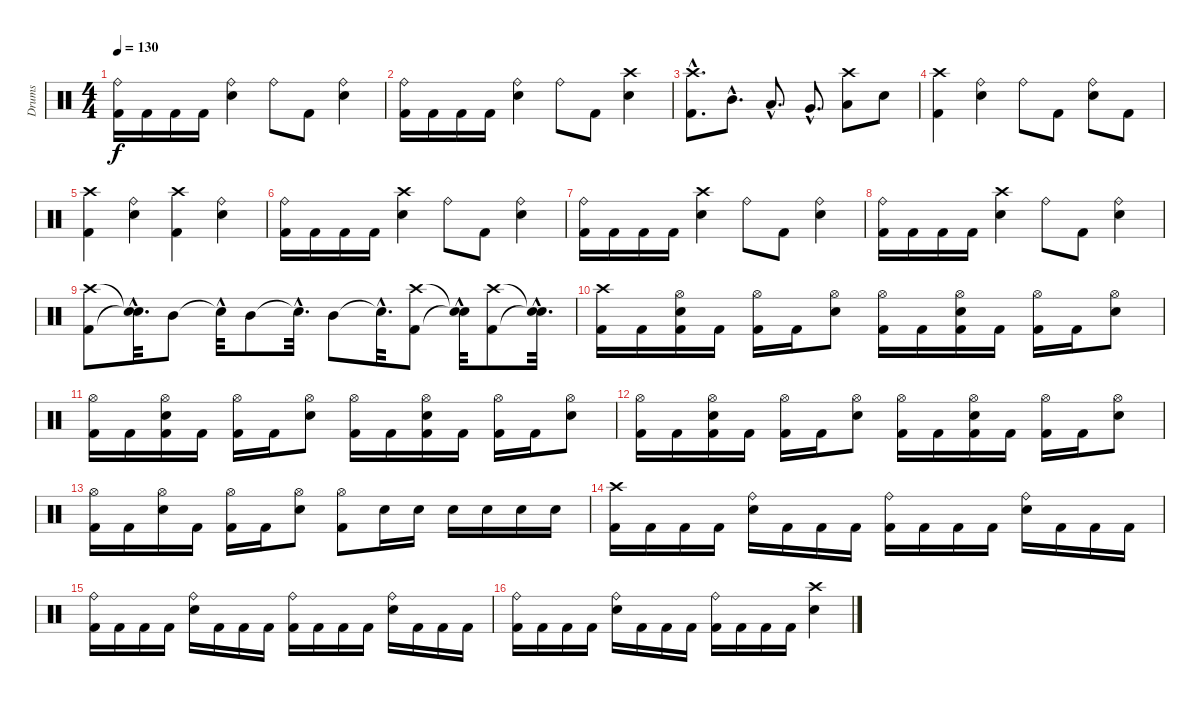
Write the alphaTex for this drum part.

\track ("Drums" "Drums") {instrument percussion}
\staff {score}
\articulation defaults
\ts (4 4)
\tempo 130
\clef neutral
\ks c
("Kick (hit) 2" "Ride (bell)").16{dy f} "Kick (hit) 2".16 "Kick (hit) 2".16 "Kick (hit) 2".16 ("Ride (bell)" "Snare (hit) 2").4 "Ride (bell)".8 "Kick (hit) 2".8 ("Ride (bell)" "Snare (hit) 2").4 |
("Kick (hit) 2" "Ride (bell)").16 "Kick (hit) 2".16 "Kick (hit) 2".16 "Kick (hit) 2".16 ("Ride (bell)" "Snare (hit) 2").4 "Ride (bell)".8 "Kick (hit) 2".8 ("Snare (hit) 2" "Crash high (hit)").4 |
("Crash high (hit)"{hac} "Kick (hit) 2").8{d} "Mid Tom (hit)"{hac}.8{d} "Low Tom (hit)"{hac}.8{d} "Very Low Tom (hit)"{hac}.8{d} ("Crash high (hit)" "Low Floor Tom (hit)").8 "Snare (hit) 2".8 |
("Kick (hit) 2" "Crash high (hit)").4 ("Ride (bell)" "Snare (hit) 2").4 "Ride (bell)".8 "Kick (hit) 2".8 ("Snare (hit) 2" "Ride (bell)").8 "Kick (hit) 2".8 |
("Crash high (hit)" "Kick (hit) 2").4 ("Ride (bell)" "Snare (hit) 2").4 ("Kick (hit) 2" "Crash high (hit)").4 ("Snare (hit) 2" "Ride (bell)").4 |
("Kick (hit) 2" "Ride (bell)").16 "Kick (hit) 2".16 "Kick (hit) 2".16 "Kick (hit) 2".16 ("Crash high (hit)" "Snare (hit) 2").4 "Ride (bell)".8 "Kick (hit) 2".8 ("Snare (hit) 2" "Ride (bell)").4 |
("Kick (hit) 2" "Ride (bell)").16 "Kick (hit) 2".16 "Kick (hit) 2".16 "Kick (hit) 2".16 ("Snare (hit) 2" "Crash high (hit)").4 "Ride (bell)".8 "Kick (hit) 2".8 ("Snare (hit) 2" "Ride (bell)").4 |
("Kick (hit) 2" "Ride (bell)").16 "Kick (hit) 2".16 "Kick (hit) 2".16 "Kick (hit) 2".16 ("Snare (hit) 2" "Crash high (hit)").4 "Ride (bell)".8 "Kick (hit) 2".8 ("Ride (bell)" "Snare (hit) 2").4 |
("Kick (hit) 2" "Crash high (hit)").8 ("Snare (hit)"{hac t} "Snare (hit)"{hac t}).32{d} "Mid Tom (hit)".8 "Snare (hit)"{hac t}.32 "Mid Tom (hit)".8 "Snare (hit)"{hac t}.32{d} "Mid Tom (hit)".8 "Snare (hit)"{hac t}.32{d} ("Crash high (hit)" "Kick (hit) 2").8 ("Snare (hit)"{hac t} "Snare (hit)"{hac t}).32 ("Kick (hit) 2" "Crash high (hit)").8 ("Snare (hit)"{hac t} "Snare (hit)"{hac t}).32{d} |
("Kick (hit) 2" "Crash high (hit)").16 "Kick (hit) 2".16 ("Kick (hit) 2" "Snare (hit) 2" "Hi-Hat (open)").16 "Kick (hit) 2".16 ("Kick (hit) 2" "Hi-Hat (open)").16 "Kick (hit) 2".16 ("Hi-Hat (open)" "Snare (hit) 2").8 ("Hi-Hat (open)" "Kick (hit) 2").16 "Kick (hit) 2".16 ("Hi-Hat (open)" "Snare (hit) 2" "Kick (hit) 2").16 "Kick (hit) 2".16 ("Kick (hit) 2" "Hi-Hat (open)").16 "Kick (hit) 2".16 ("Snare (hit) 2" "Hi-Hat (open)").8 |
("Kick (hit) 2" "Hi-Hat (open)").16 "Kick (hit) 2".16 ("Kick (hit) 2" "Hi-Hat (open)" "Snare (hit) 2").16 "Kick (hit) 2".16 ("Kick (hit) 2" "Hi-Hat (open)").16 "Kick (hit) 2".16 ("Snare (hit) 2" "Hi-Hat (open)").8 ("Hi-Hat (open)" "Kick (hit) 2").16 "Kick (hit) 2".16 ("Kick (hit) 2" "Snare (hit) 2" "Hi-Hat (open)").16 "Kick (hit) 2".16 ("Hi-Hat (open)" "Kick (hit) 2").16 "Kick (hit) 2".16 ("Snare (hit) 2" "Hi-Hat (open)").8 |
("Kick (hit) 2" "Hi-Hat (open)").16 "Kick (hit) 2".16 ("Snare (hit) 2" "Hi-Hat (open)" "Kick (hit) 2").16 "Kick (hit) 2".16 ("Kick (hit) 2" "Hi-Hat (open)").16 "Kick (hit) 2".16 ("Hi-Hat (open)" "Snare (hit) 2").8 ("Hi-Hat (open)" "Kick (hit) 2").16 "Kick (hit) 2".16 ("Hi-Hat (open)" "Snare (hit) 2" "Kick (hit) 2").16 "Kick (hit) 2".16 ("Kick (hit) 2" "Hi-Hat (open)").16 "Kick (hit) 2".16 ("Snare (hit) 2" "Hi-Hat (open)").8 |
("Kick (hit) 2" "Hi-Hat (open)").16 "Kick (hit) 2".16 ("Snare (hit) 2" "Hi-Hat (open)").16 "Kick (hit) 2".16 ("Kick (hit) 2" "Hi-Hat (open)").16 "Kick (hit) 2".16 ("Hi-Hat (open)" "Snare (hit) 2").8 ("Kick (hit) 2" "Hi-Hat (open)").8 "Snare (hit) 2".16 "Snare (hit) 2".16 "Snare (hit) 2".16 "Snare (hit) 2".16 "Snare (hit) 2".16 "Snare (hit) 2".16 |
("Kick (hit) 2" "Crash high (hit)").16 "Kick (hit) 2".16 "Kick (hit) 2".16 "Kick (hit) 2".16 ("Snare (hit) 2" "Ride (bell)").16 "Kick (hit) 2".16 "Kick (hit) 2".16 "Kick (hit) 2".16 ("Kick (hit) 2" "Ride (bell)").16 "Kick (hit) 2".16 "Kick (hit) 2".16 "Kick (hit) 2".16 ("Snare (hit) 2" "Ride (bell)").16 "Kick (hit) 2".16 "Kick (hit) 2".16 "Kick (hit) 2".16 |
("Kick (hit) 2" "Ride (bell)").16 "Kick (hit) 2".16 "Kick (hit) 2".16 "Kick (hit) 2".16 ("Ride (bell)" "Snare (hit) 2").16 "Kick (hit) 2".16 "Kick (hit) 2".16 "Kick (hit) 2".16 ("Kick (hit) 2" "Ride (bell)").16 "Kick (hit) 2".16 "Kick (hit) 2".16 "Kick (hit) 2".16 ("Ride (bell)" "Snare (hit) 2").16 "Kick (hit) 2".16 "Kick (hit) 2".16 "Kick (hit) 2".16 |
("Kick (hit) 2" "Ride (bell)").16 "Kick (hit) 2".16 "Kick (hit) 2".16 "Kick (hit) 2".16 ("Snare (hit) 2" "Ride (bell)").16 "Kick (hit) 2".16 "Kick (hit) 2".16 "Kick (hit) 2".16 ("Kick (hit) 2" "Ride (bell)").16 "Kick (hit) 2".16 "Kick (hit) 2".16 "Kick (hit) 2".16 ("Snare (hit) 2" "Crash high (hit)").4
